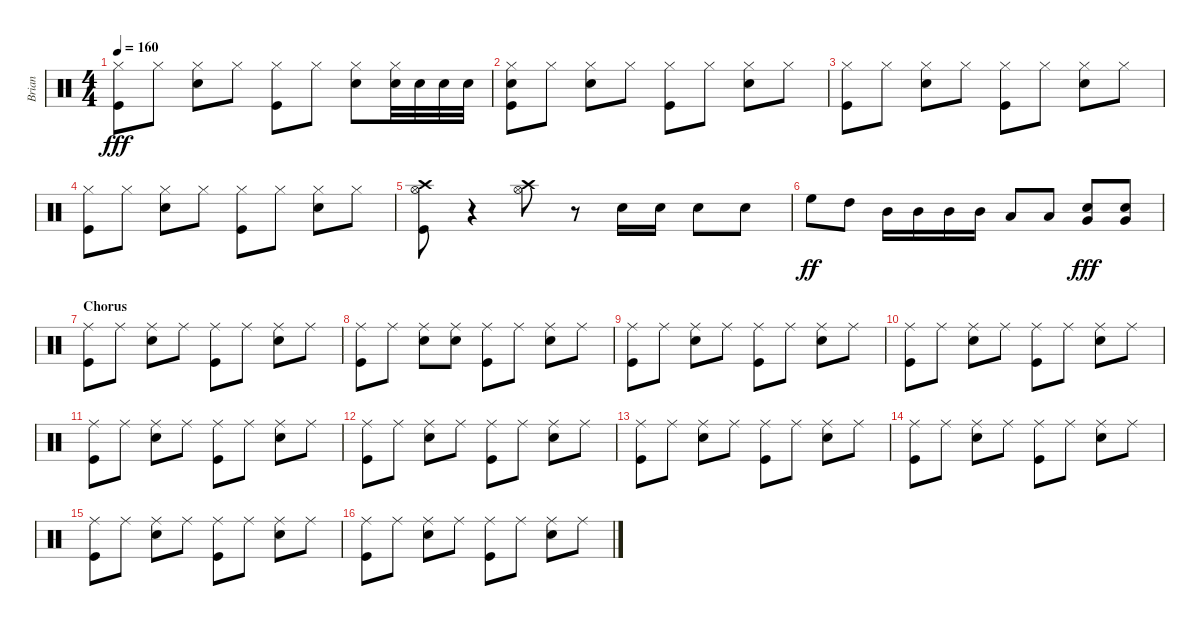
\track ("Brian" "Brian") {instrument percussion}
\staff {score}
\articulation defaults
\ts (4 4)
\tempo 160
\clef neutral
\ks c
("Hi-Hat (closed)" "Kick (hit)").8{dy fff} "Hi-Hat (closed)".8 ("Hi-Hat (closed)" "Electric Snare (hit)").8 "Hi-Hat (closed)".8 ("Hi-Hat (closed)" "Kick (hit)").8 "Hi-Hat (closed)".8 ("Hi-Hat (closed)" "Electric Snare (hit)").8 ("Hi-Hat (closed)" "Snare (hit) 2").32 "Snare (hit) 2".32 "Snare (hit) 2".32 "Snare (hit) 2".32 |
("Hi-Hat (closed)" "Snare (hit) 2" "Kick (hit)").8 "Hi-Hat (closed)".8 ("Hi-Hat (closed)" "Electric Snare (hit)").8 "Hi-Hat (closed)".8 ("Hi-Hat (closed)" "Kick (hit)").8 "Hi-Hat (closed)".8 ("Hi-Hat (closed)" "Electric Snare (hit)").8 "Hi-Hat (closed)".8 |
("Hi-Hat (closed)" "Kick (hit)").8 "Hi-Hat (closed)".8 ("Hi-Hat (closed)" "Electric Snare (hit)").8 "Hi-Hat (closed)".8 ("Hi-Hat (closed)" "Kick (hit)").8 "Hi-Hat (closed)".8 ("Hi-Hat (closed)" "Electric Snare (hit)").8 "Hi-Hat (closed)".8 |
("Hi-Hat (closed)" "Kick (hit)").8 "Hi-Hat (closed)".8 ("Hi-Hat (closed)" "Electric Snare (hit)").8 "Hi-Hat (closed)".8 ("Hi-Hat (closed)" "Kick (hit)").8 "Hi-Hat (closed)".8 ("Hi-Hat (closed)" "Electric Snare (hit)").8 "Hi-Hat (closed)".8 |
("Crash high (hit)" "Hi-Hat (open)" "Kick (hit)").8 r.4 ("Crash high (hit)" "Hi-Hat (open)").8 r.8 "Snare (hit) 2".16 "Snare (hit) 2".16 "Snare (hit) 2".8 "Electric Snare (hit)".8 |
"High Floor Tom (hit)".8{dy ff} "High Tom (hit)".8 "Mid Tom (hit)".16 "Mid Tom (hit)".16 "Mid Tom (hit)".16 "Mid Tom (hit)".16 "Low Tom (hit)".8 "Low Tom (hit)".8 ("Very Low Tom (hit)" "Electric Snare (hit)").8{dy fff} ("Very Low Tom (hit)" "Electric Snare (hit)").8 |
\section ("" "Chorus")
("Ride (middle)" "Kick (hit)").8 "Ride (middle)".8 ("Ride (middle)" "Electric Snare (hit)").8 "Ride (middle)".8 ("Ride (middle)" "Kick (hit)").8 "Ride (middle)".8 ("Ride (middle)" "Electric Snare (hit)").8 "Ride (middle)".8 |
("Ride (middle)" "Kick (hit)").8 "Ride (middle)".8 ("Ride (middle)" "Electric Snare (hit)").8 ("Ride (middle)" "Electric Snare (hit)").8 ("Ride (middle)" "Kick (hit)").8 "Ride (middle)".8 ("Ride (middle)" "Electric Snare (hit)").8 "Ride (middle)".8 |
("Ride (middle)" "Kick (hit)").8 "Ride (middle)".8 ("Ride (middle)" "Electric Snare (hit)").8 "Ride (middle)".8 ("Ride (middle)" "Kick (hit)").8 "Ride (middle)".8 ("Ride (middle)" "Electric Snare (hit)").8 "Ride (middle)".8 |
("Ride (middle)" "Kick (hit)").8 "Ride (middle)".8 ("Ride (middle)" "Electric Snare (hit)").8 "Ride (middle)".8 ("Ride (middle)" "Kick (hit)").8 "Ride (middle)".8 ("Ride (middle)" "Electric Snare (hit)").8 "Ride (middle)".8 |
("Ride (middle)" "Kick (hit)").8 "Ride (middle)".8 ("Ride (middle)" "Electric Snare (hit)").8 "Ride (middle)".8 ("Ride (middle)" "Kick (hit)").8 "Ride (middle)".8 ("Ride (middle)" "Electric Snare (hit)").8 "Ride (middle)".8 |
("Ride (middle)" "Kick (hit)").8 "Ride (middle)".8 ("Ride (middle)" "Electric Snare (hit)").8 "Ride (middle)".8 ("Ride (middle)" "Kick (hit)").8 "Ride (middle)".8 ("Ride (middle)" "Electric Snare (hit)").8 "Ride (middle)".8 |
("Ride (middle)" "Kick (hit)").8 "Ride (middle)".8 ("Ride (middle)" "Electric Snare (hit)").8 "Ride (middle)".8 ("Ride (middle)" "Kick (hit)").8 "Ride (middle)".8 ("Ride (middle)" "Electric Snare (hit)").8 "Ride (middle)".8 |
("Ride (middle)" "Kick (hit)").8 "Ride (middle)".8 ("Ride (middle)" "Electric Snare (hit)").8 "Ride (middle)".8 ("Ride (middle)" "Kick (hit)").8 "Ride (middle)".8 ("Ride (middle)" "Electric Snare (hit)").8 "Ride (middle)".8 |
("Ride (middle)" "Kick (hit)").8 "Ride (middle)".8 ("Ride (middle)" "Electric Snare (hit)").8 "Ride (middle)".8 ("Ride (middle)" "Kick (hit)").8 "Ride (middle)".8 ("Ride (middle)" "Electric Snare (hit)").8 "Ride (middle)".8 |
("Ride (middle)" "Kick (hit)").8 "Ride (middle)".8 ("Ride (middle)" "Electric Snare (hit)").8 "Ride (middle)".8 ("Ride (middle)" "Kick (hit)").8 "Ride (middle)".8 ("Ride (middle)" "Electric Snare (hit)").8 "Ride (middle)".8
